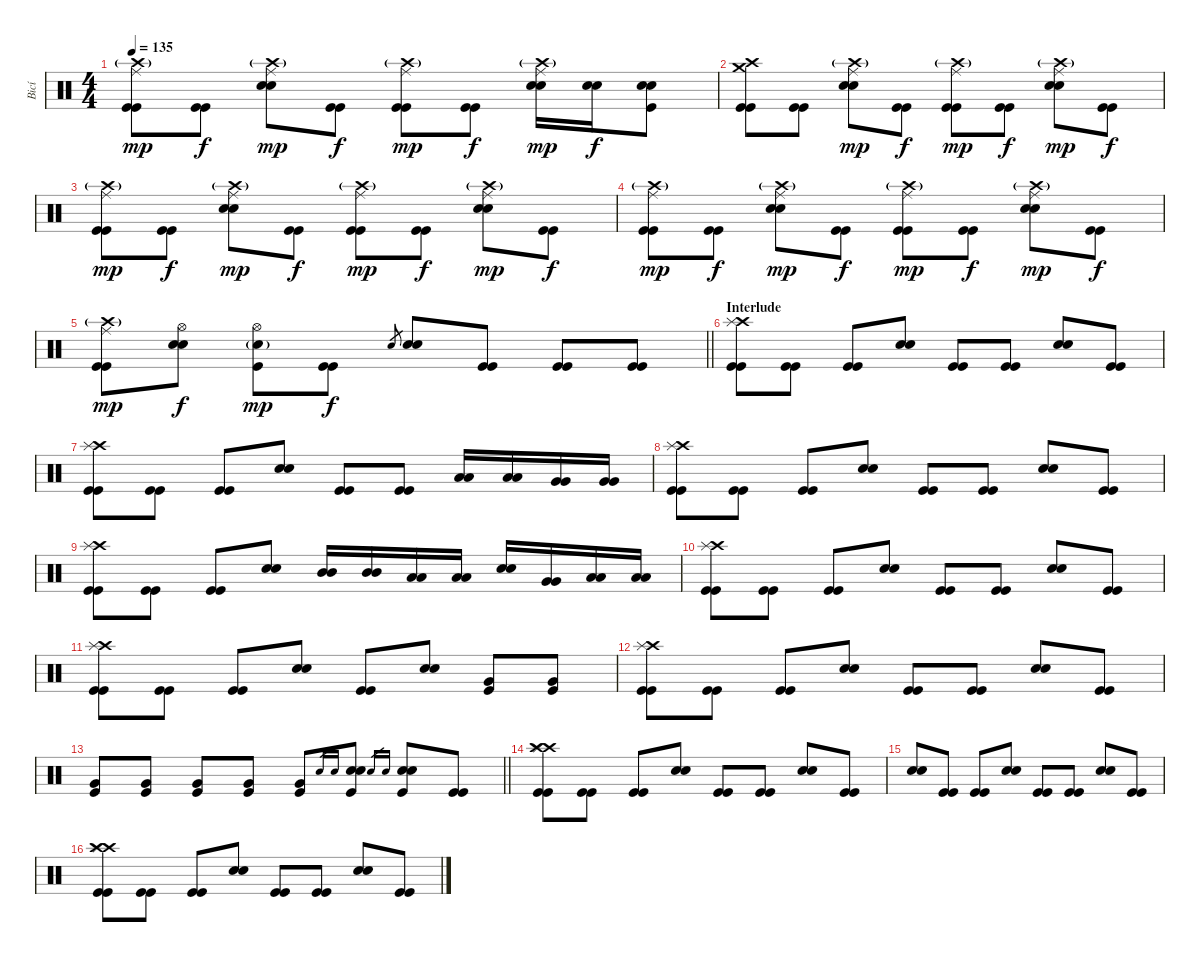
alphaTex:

\track ("Bicí" "Bicí") {instrument percussion}
\staff {score}
\articulation defaults
\ts (4 4)
\tempo 135
\clef neutral
\ks c
("Crash high (hit)"{g} "Ride (middle)" "Kick (hit)" "Kick (hit)").8{dy mp} ("Kick (hit)" "Kick (hit)").8{dy f} ("Crash high (hit)"{g} "Ride (middle)" "Electric Snare (hit)" "Electric Snare (hit)").8{dy mp} ("Kick (hit)" "Kick (hit)").8{dy f} ("Crash high (hit)"{g} "Ride (middle)" "Kick (hit)" "Kick (hit)").8{dy mp} ("Kick (hit)" "Kick (hit)").8{dy f} ("Crash high (hit)"{g} "Ride (middle)" "Electric Snare (hit)" "Electric Snare (hit)").16{dy mp} ("Electric Snare (hit)" "Electric Snare (hit)").16{dy f} ("Electric Snare (hit)" "Electric Snare (hit)" "Kick (hit)").8 |
("Crash high (hit)" "Crash medium (hit)" "Kick (hit)" "Kick (hit)").8 ("Kick (hit)" "Kick (hit)").8 ("Crash high (hit)"{g} "Ride (middle)" "Electric Snare (hit)" "Electric Snare (hit)").8{dy mp} ("Kick (hit)" "Kick (hit)").8{dy f} ("Crash high (hit)"{g} "Ride (middle)" "Kick (hit)" "Kick (hit)").8{dy mp} ("Kick (hit)" "Kick (hit)").8{dy f} ("Crash high (hit)"{g} "Ride (middle)" "Electric Snare (hit)" "Electric Snare (hit)").8{dy mp} ("Kick (hit)" "Kick (hit)").8{dy f} |
("Crash high (hit)"{g} "Ride (middle)" "Kick (hit)" "Kick (hit)").8{dy mp} ("Kick (hit)" "Kick (hit)").8{dy f} ("Crash high (hit)"{g} "Ride (middle)" "Electric Snare (hit)" "Electric Snare (hit)").8{dy mp} ("Kick (hit)" "Kick (hit)").8{dy f} ("Crash high (hit)"{g} "Ride (middle)" "Kick (hit)" "Kick (hit)").8{dy mp} ("Kick (hit)" "Kick (hit)").8{dy f} ("Crash high (hit)"{g} "Ride (middle)" "Electric Snare (hit)" "Electric Snare (hit)").8{dy mp} ("Kick (hit)" "Kick (hit)").8{dy f} |
("Crash high (hit)"{g} "Ride (middle)" "Kick (hit)" "Kick (hit)").8{dy mp} ("Kick (hit)" "Kick (hit)").8{dy f} ("Crash high (hit)"{g} "Ride (middle)" "Electric Snare (hit)" "Electric Snare (hit)").8{dy mp} ("Kick (hit)" "Kick (hit)").8{dy f} ("Crash high (hit)"{g} "Ride (middle)" "Kick (hit)" "Kick (hit)").8{dy mp} ("Kick (hit)" "Kick (hit)").8{dy f} ("Crash high (hit)"{g} "Ride (middle)" "Electric Snare (hit)" "Electric Snare (hit)").8{dy mp} ("Kick (hit)" "Kick (hit)").8{dy f} |
\barLineRight lightlight
("Crash high (hit)"{g} "Ride (middle)" "Kick (hit)" "Kick (hit)").8{dy mp} ("Hi-Hat (open)" "Electric Snare (hit)" "Electric Snare (hit)").8{dy f} ("Hi-Hat (open)" "Electric Snare (hit)"{g} "Kick (hit)").8{dy mp} ("Kick (hit)" "Kick (hit)").8{dy f} "Electric Snare (hit)".8{gr} ("Electric Snare (hit)" "Electric Snare (hit)").8 ("Kick (hit)" "Kick (hit)").8 ("Kick (hit)" "Kick (hit)").8 ("Kick (hit)" "Kick (hit)").8 |
\section ("" "Interlude")
("Crash high (hit)" "Splash (hit)" "Kick (hit)" "Kick (hit)").8 ("Kick (hit)" "Kick (hit)").8 ("Kick (hit)" "Kick (hit)").8 ("Electric Snare (hit)" "Electric Snare (hit)").8 ("Kick (hit)" "Kick (hit)").8 ("Kick (hit)" "Kick (hit)").8 ("Electric Snare (hit)" "Electric Snare (hit)").8 ("Kick (hit)" "Kick (hit)").8 |
("Crash high (hit)" "Splash (hit)" "Kick (hit)" "Kick (hit)").8 ("Kick (hit)" "Kick (hit)").8 ("Kick (hit)" "Kick (hit)").8 ("Electric Snare (hit)" "Electric Snare (hit)").8 ("Kick (hit)" "Kick (hit)").8 ("Kick (hit)" "Kick (hit)").8 ("Low Tom (hit)" "Low Tom (hit)").16 ("Low Tom (hit)" "Low Tom (hit)").16 ("Very Low Tom (hit)" "Very Low Tom (hit)").16 ("Very Low Tom (hit)" "Very Low Tom (hit)").16 |
("Crash high (hit)" "Splash (hit)" "Kick (hit)" "Kick (hit)").8 ("Kick (hit)" "Kick (hit)").8 ("Kick (hit)" "Kick (hit)").8 ("Electric Snare (hit)" "Electric Snare (hit)").8 ("Kick (hit)" "Kick (hit)").8 ("Kick (hit)" "Kick (hit)").8 ("Electric Snare (hit)" "Electric Snare (hit)").8 ("Kick (hit)" "Kick (hit)").8 |
("Crash high (hit)" "Splash (hit)" "Kick (hit)" "Kick (hit)").8 ("Kick (hit)" "Kick (hit)").8 ("Kick (hit)" "Kick (hit)").8 ("Electric Snare (hit)" "Electric Snare (hit)").8 ("Mid Tom (hit)" "Mid Tom (hit)").16 ("Mid Tom (hit)" "Mid Tom (hit)").16 ("Low Tom (hit)" "Low Tom (hit)").16 ("Low Tom (hit)" "Low Tom (hit)").16 ("Electric Snare (hit)" "Electric Snare (hit)").16 ("Very Low Tom (hit)" "Very Low Tom (hit)").16 ("Low Floor Tom (hit)" "Low Floor Tom (hit)").16 ("Low Floor Tom (hit)" "Low Floor Tom (hit)").16 |
("Crash high (hit)" "Splash (hit)" "Kick (hit)" "Kick (hit)").8 ("Kick (hit)" "Kick (hit)").8 ("Kick (hit)" "Kick (hit)").8 ("Electric Snare (hit)" "Electric Snare (hit)").8 ("Kick (hit)" "Kick (hit)").8 ("Kick (hit)" "Kick (hit)").8 ("Electric Snare (hit)" "Electric Snare (hit)").8 ("Kick (hit)" "Kick (hit)").8 |
("Crash high (hit)" "Splash (hit)" "Kick (hit)" "Kick (hit)").8 ("Kick (hit)" "Kick (hit)").8 ("Kick (hit)" "Kick (hit)").8 ("Electric Snare (hit)" "Electric Snare (hit)").8 ("Kick (hit)" "Kick (hit)").8 ("Electric Snare (hit)" "Electric Snare (hit)").8 ("Very Low Tom (hit)" "Kick (hit)").8 ("Very Low Tom (hit)" "Kick (hit)").8 |
("Crash high (hit)" "Splash (hit)" "Kick (hit)" "Kick (hit)").8 ("Kick (hit)" "Kick (hit)").8 ("Kick (hit)" "Kick (hit)").8 ("Electric Snare (hit)" "Electric Snare (hit)").8 ("Kick (hit)" "Kick (hit)").8 ("Kick (hit)" "Kick (hit)").8 ("Electric Snare (hit)" "Electric Snare (hit)").8 ("Kick (hit)" "Kick (hit)").8 |
\barLineRight lightlight
("Very Low Tom (hit)" "Kick (hit)").8 ("Very Low Tom (hit)" "Kick (hit)").8 ("Very Low Tom (hit)" "Kick (hit)").8 ("Very Low Tom (hit)" "Kick (hit)").8 ("Very Low Tom (hit)" "Kick (hit)").8 "Electric Snare (hit)".16{gr} "Electric Snare (hit)".16{gr} ("Electric Snare (hit)" "Electric Snare (hit)" "Kick (hit)").8 "Electric Snare (hit)".16{gr} "Electric Snare (hit)".16{gr} ("Electric Snare (hit)" "Electric Snare (hit)" "Kick (hit)").8 ("Kick (hit)" "Kick (hit)").8 |
\section ("" "")
("Crash high (hit)" "Splash (hit)" "Crash high (hit)" "Kick (hit)" "Kick (hit)").8 ("Kick (hit)" "Kick (hit)").8 ("Kick (hit)" "Kick (hit)").8 ("Electric Snare (hit)" "Electric Snare (hit)").8 ("Kick (hit)" "Kick (hit)").8 ("Kick (hit)" "Kick (hit)").8 ("Electric Snare (hit)" "Electric Snare (hit)").8 ("Kick (hit)" "Kick (hit)").8 |
("Electric Snare (hit)" "Electric Snare (hit)").8 ("Kick (hit)" "Kick (hit)").8 ("Kick (hit)" "Kick (hit)").8 ("Electric Snare (hit)" "Electric Snare (hit)").8 ("Kick (hit)" "Kick (hit)").8 ("Kick (hit)" "Kick (hit)").8 ("Electric Snare (hit)" "Electric Snare (hit)").8 ("Kick (hit)" "Kick (hit)").8 |
("Crash high (hit)" "Splash (hit)" "Crash high (hit)" "Kick (hit)" "Kick (hit)").8 ("Kick (hit)" "Kick (hit)").8 ("Kick (hit)" "Kick (hit)").8 ("Electric Snare (hit)" "Electric Snare (hit)").8 ("Kick (hit)" "Kick (hit)").8 ("Kick (hit)" "Kick (hit)").8 ("Electric Snare (hit)" "Electric Snare (hit)").8 ("Kick (hit)" "Kick (hit)").8
